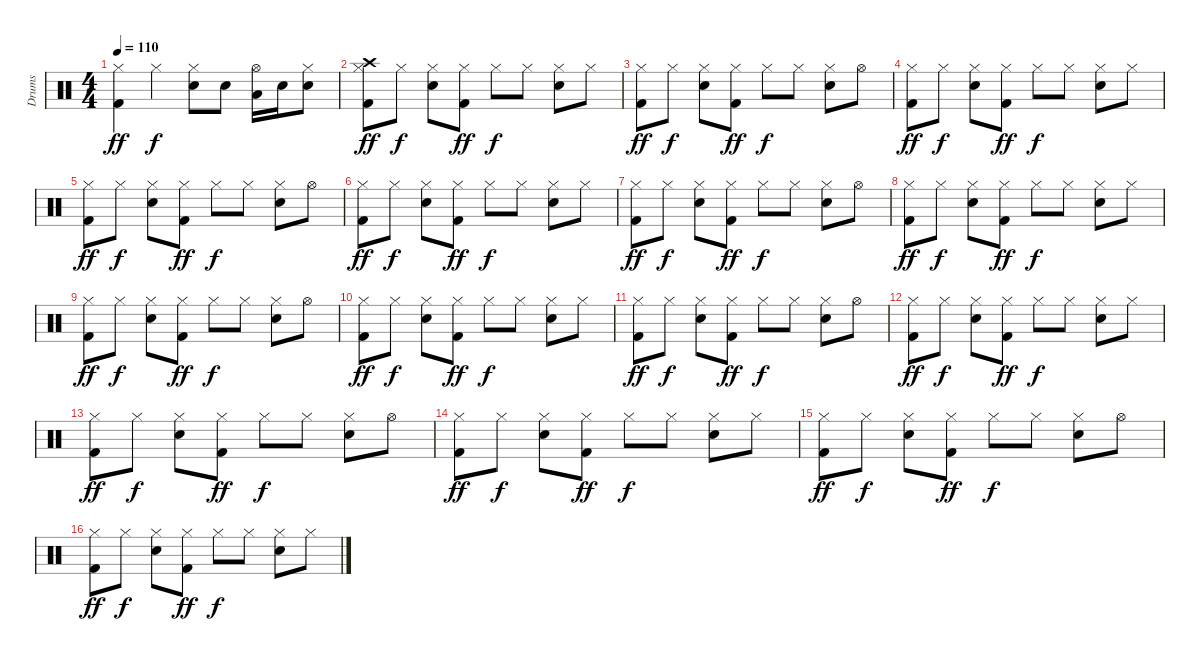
\track ("Drums" "Drums") {instrument percussion}
\staff {score}
\articulation defaults
\ts (4 4)
\tempo 110
\clef neutral
\ks c
("Kick (hit) 2" "Hi-Hat (closed)").4{dy ff} "Hi-Hat (closed)".4{dy f} ("Snare (hit) 2" "Hi-Hat (closed)").8 "Snare (hit) 2".8 ("Low Tom (hit)" "Hi-Hat (open)").16 "Snare (hit) 2".16 ("Snare (hit) 2" "Hi-Hat (closed)").8 |
("Kick (hit) 2" "Hi-Hat (closed)" "Crash high (hit)").8{dy ff} "Hi-Hat (closed)".8{dy f} ("Snare (hit) 2" "Hi-Hat (closed)").8 ("Kick (hit) 2" "Hi-Hat (closed)").8{dy ff} "Hi-Hat (closed)".8{dy f} "Hi-Hat (closed)".8 ("Snare (hit) 2" "Hi-Hat (closed)").8 "Hi-Hat (closed)".8 |
("Kick (hit) 2" "Hi-Hat (closed)").8{dy ff} "Hi-Hat (closed)".8{dy f} ("Snare (hit) 2" "Hi-Hat (closed)").8 ("Kick (hit) 2" "Hi-Hat (closed)").8{dy ff} "Hi-Hat (closed)".8{dy f} "Hi-Hat (closed)".8 ("Snare (hit) 2" "Hi-Hat (closed)").8 "Hi-Hat (open)".8 |
("Kick (hit) 2" "Hi-Hat (closed)").8{dy ff} "Hi-Hat (closed)".8{dy f} ("Snare (hit) 2" "Hi-Hat (closed)").8 ("Kick (hit) 2" "Hi-Hat (closed)").8{dy ff} "Hi-Hat (closed)".8{dy f} "Hi-Hat (closed)".8 ("Snare (hit) 2" "Hi-Hat (closed)").8 "Hi-Hat (closed)".8 |
("Kick (hit) 2" "Hi-Hat (closed)").8{dy ff} "Hi-Hat (closed)".8{dy f} ("Snare (hit) 2" "Hi-Hat (closed)").8 ("Kick (hit) 2" "Hi-Hat (closed)").8{dy ff} "Hi-Hat (closed)".8{dy f} "Hi-Hat (closed)".8 ("Snare (hit) 2" "Hi-Hat (closed)").8 "Hi-Hat (open)".8 |
("Kick (hit) 2" "Hi-Hat (closed)").8{dy ff} "Hi-Hat (closed)".8{dy f} ("Snare (hit) 2" "Hi-Hat (closed)").8 ("Kick (hit) 2" "Hi-Hat (closed)").8{dy ff} "Hi-Hat (closed)".8{dy f} "Hi-Hat (closed)".8 ("Snare (hit) 2" "Hi-Hat (closed)").8 "Hi-Hat (closed)".8 |
("Kick (hit) 2" "Hi-Hat (closed)").8{dy ff} "Hi-Hat (closed)".8{dy f} ("Snare (hit) 2" "Hi-Hat (closed)").8 ("Kick (hit) 2" "Hi-Hat (closed)").8{dy ff} "Hi-Hat (closed)".8{dy f} "Hi-Hat (closed)".8 ("Snare (hit) 2" "Hi-Hat (closed)").8 "Hi-Hat (open)".8 |
("Kick (hit) 2" "Hi-Hat (closed)").8{dy ff} "Hi-Hat (closed)".8{dy f} ("Snare (hit) 2" "Hi-Hat (closed)").8 ("Kick (hit) 2" "Hi-Hat (closed)").8{dy ff} "Hi-Hat (closed)".8{dy f} "Hi-Hat (closed)".8 ("Snare (hit) 2" "Hi-Hat (closed)").8 "Hi-Hat (closed)".8 |
("Kick (hit) 2" "Hi-Hat (closed)").8{dy ff} "Hi-Hat (closed)".8{dy f} ("Snare (hit) 2" "Hi-Hat (closed)").8 ("Kick (hit) 2" "Hi-Hat (closed)").8{dy ff} "Hi-Hat (closed)".8{dy f} "Hi-Hat (closed)".8 ("Snare (hit) 2" "Hi-Hat (closed)").8 "Hi-Hat (open)".8 |
("Kick (hit) 2" "Hi-Hat (closed)").8{dy ff} "Hi-Hat (closed)".8{dy f} ("Snare (hit) 2" "Hi-Hat (closed)").8 ("Kick (hit) 2" "Hi-Hat (closed)").8{dy ff} "Hi-Hat (closed)".8{dy f} "Hi-Hat (closed)".8 ("Snare (hit) 2" "Hi-Hat (closed)").8 "Hi-Hat (closed)".8 |
("Kick (hit) 2" "Hi-Hat (closed)").8{dy ff} "Hi-Hat (closed)".8{dy f} ("Snare (hit) 2" "Hi-Hat (closed)").8 ("Kick (hit) 2" "Hi-Hat (closed)").8{dy ff} "Hi-Hat (closed)".8{dy f} "Hi-Hat (closed)".8 ("Snare (hit) 2" "Hi-Hat (closed)").8 "Hi-Hat (open)".8 |
("Kick (hit) 2" "Hi-Hat (closed)").8{dy ff} "Hi-Hat (closed)".8{dy f} ("Snare (hit) 2" "Hi-Hat (closed)").8 ("Kick (hit) 2" "Hi-Hat (closed)").8{dy ff} "Hi-Hat (closed)".8{dy f} "Hi-Hat (closed)".8 ("Snare (hit) 2" "Hi-Hat (closed)").8 "Hi-Hat (closed)".8 |
("Kick (hit) 2" "Hi-Hat (closed)").8{dy ff} "Hi-Hat (closed)".8{dy f} ("Snare (hit) 2" "Hi-Hat (closed)").8 ("Kick (hit) 2" "Hi-Hat (closed)").8{dy ff} "Hi-Hat (closed)".8{dy f} "Hi-Hat (closed)".8 ("Snare (hit) 2" "Hi-Hat (closed)").8 "Hi-Hat (open)".8 |
("Kick (hit) 2" "Hi-Hat (closed)").8{dy ff} "Hi-Hat (closed)".8{dy f} ("Snare (hit) 2" "Hi-Hat (closed)").8 ("Kick (hit) 2" "Hi-Hat (closed)").8{dy ff} "Hi-Hat (closed)".8{dy f} "Hi-Hat (closed)".8 ("Snare (hit) 2" "Hi-Hat (closed)").8 "Hi-Hat (closed)".8 |
("Kick (hit) 2" "Hi-Hat (closed)").8{dy ff} "Hi-Hat (closed)".8{dy f} ("Snare (hit) 2" "Hi-Hat (closed)").8 ("Kick (hit) 2" "Hi-Hat (closed)").8{dy ff} "Hi-Hat (closed)".8{dy f} "Hi-Hat (closed)".8 ("Snare (hit) 2" "Hi-Hat (closed)").8 "Hi-Hat (open)".8 |
("Kick (hit) 2" "Hi-Hat (closed)").8{dy ff} "Hi-Hat (closed)".8{dy f} ("Snare (hit) 2" "Hi-Hat (closed)").8 ("Kick (hit) 2" "Hi-Hat (closed)").8{dy ff} "Hi-Hat (closed)".8{dy f} "Hi-Hat (closed)".8 ("Snare (hit) 2" "Hi-Hat (closed)").8 "Hi-Hat (closed)".8
